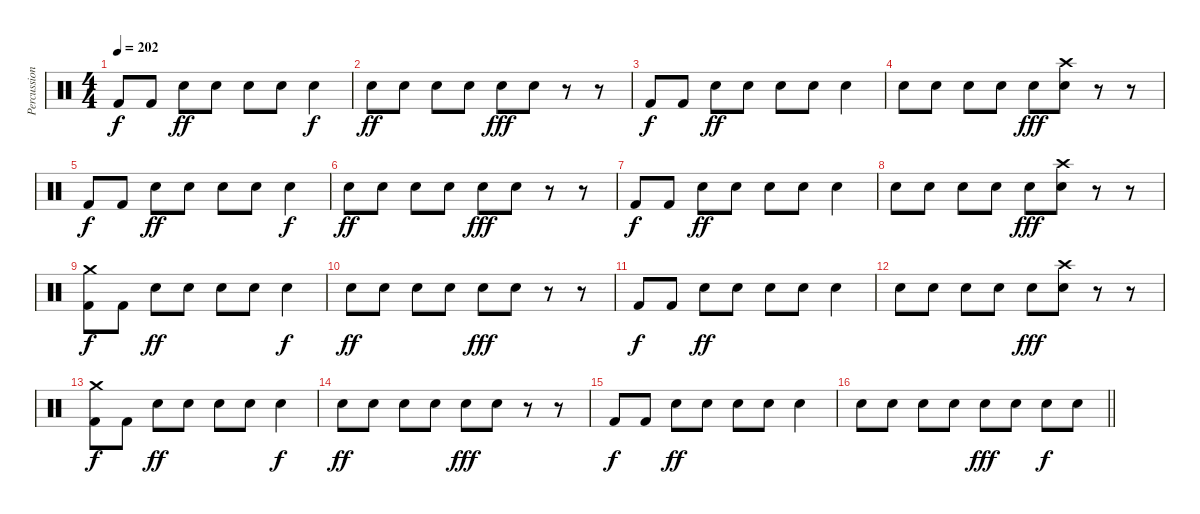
\track ("Percussion" "Percussion") {instrument percussion}
\staff {score}
\articulation defaults
\ts (4 4)
\tempo 202
\clef neutral
\ks c "Kick (hit) 2".8{dy f} "Kick (hit) 2".8 "Electric Snare (hit)".8{dy ff} "Electric Snare (hit)".8 "Electric Snare (hit)".8 "Electric Snare (hit)".8 "Electric Snare (hit)".4{dy f}
|
"Electric Snare (hit)".8{dy ff} "Electric Snare (hit)".8 "Electric Snare (hit)".8 "Electric Snare (hit)".8 "Electric Snare (hit)".8{dy fff} "Electric Snare (hit)".8 r.8 r.8 |
"Kick (hit) 2".8{dy f} "Kick (hit) 2".8 "Electric Snare (hit)".8{dy ff} "Electric Snare (hit)".8 "Electric Snare (hit)".8 "Electric Snare (hit)".8 "Electric Snare (hit)".4 |
"Electric Snare (hit)".8 "Electric Snare (hit)".8 "Electric Snare (hit)".8 "Electric Snare (hit)".8 "Electric Snare (hit)".8{dy fff} ("Crash high (hit)" "Electric Snare (hit)").8 r.8 r.8 |
"Kick (hit) 2".8{dy f} "Kick (hit) 2".8 "Electric Snare (hit)".8{dy ff} "Electric Snare (hit)".8 "Electric Snare (hit)".8 "Electric Snare (hit)".8 "Electric Snare (hit)".4{dy f} |
"Electric Snare (hit)".8{dy ff} "Electric Snare (hit)".8 "Electric Snare (hit)".8 "Electric Snare (hit)".8 "Electric Snare (hit)".8{dy fff} "Electric Snare (hit)".8 r.8 r.8 |
"Kick (hit) 2".8{dy f} "Kick (hit) 2".8 "Electric Snare (hit)".8{dy ff} "Electric Snare (hit)".8 "Electric Snare (hit)".8 "Electric Snare (hit)".8 "Electric Snare (hit)".4 |
"Electric Snare (hit)".8 "Electric Snare (hit)".8 "Electric Snare (hit)".8 "Electric Snare (hit)".8 "Electric Snare (hit)".8{dy fff} ("Crash high (hit)" "Electric Snare (hit)").8 r.8 r.8 |
("Crash medium (hit)" "Kick (hit) 2").8{dy f} "Kick (hit) 2".8 "Electric Snare (hit)".8{dy ff} "Electric Snare (hit)".8 "Electric Snare (hit)".8 "Electric Snare (hit)".8 "Electric Snare (hit)".4{dy f} |
"Electric Snare (hit)".8{dy ff} "Electric Snare (hit)".8 "Electric Snare (hit)".8 "Electric Snare (hit)".8 "Electric Snare (hit)".8{dy fff} "Electric Snare (hit)".8 r.8 r.8 |
"Kick (hit) 2".8{dy f} "Kick (hit) 2".8 "Electric Snare (hit)".8{dy ff} "Electric Snare (hit)".8 "Electric Snare (hit)".8 "Electric Snare (hit)".8 "Electric Snare (hit)".4 |
"Electric Snare (hit)".8 "Electric Snare (hit)".8 "Electric Snare (hit)".8 "Electric Snare (hit)".8 "Electric Snare (hit)".8{dy fff} ("Crash high (hit)" "Electric Snare (hit)").8 r.8 r.8 |
("Crash medium (hit)" "Kick (hit) 2").8{dy f} "Kick (hit) 2".8 "Electric Snare (hit)".8{dy ff} "Electric Snare (hit)".8 "Electric Snare (hit)".8 "Electric Snare (hit)".8 "Electric Snare (hit)".4{dy f} |
"Electric Snare (hit)".8{dy ff} "Electric Snare (hit)".8 "Electric Snare (hit)".8 "Electric Snare (hit)".8 "Electric Snare (hit)".8{dy fff} "Electric Snare (hit)".8 r.8 r.8 |
"Kick (hit) 2".8{dy f} "Kick (hit) 2".8 "Electric Snare (hit)".8{dy ff} "Electric Snare (hit)".8 "Electric Snare (hit)".8 "Electric Snare (hit)".8 "Electric Snare (hit)".4 |
\barLineRight lightlight "Electric Snare (hit)".8 "Electric Snare (hit)".8 "Electric Snare (hit)".8 "Electric Snare (hit)".8 "Electric Snare (hit)".8{dy fff} "Electric Snare (hit)".8 "Electric Snare (hit)".8{dy f} "Electric Snare (hit)".8
